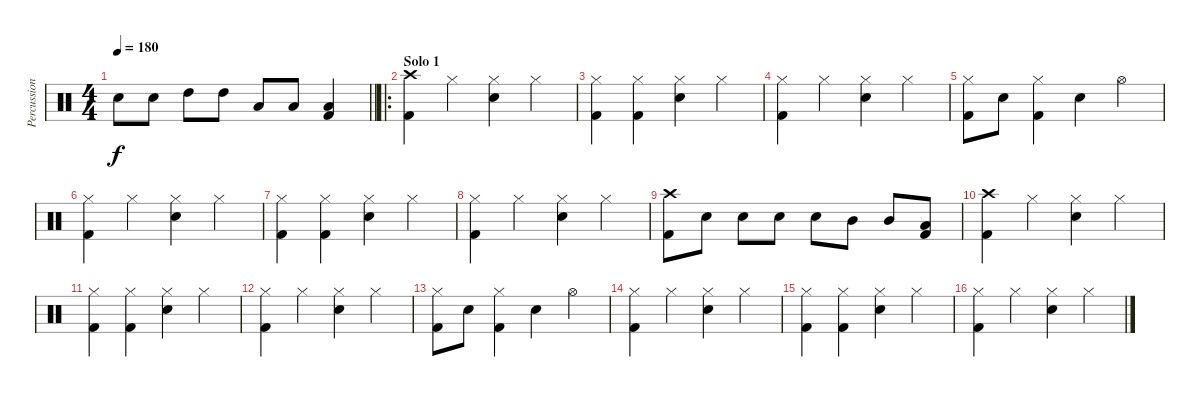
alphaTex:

\track ("Percussion" "Percussion") {instrument percussion}
\staff {score}
\articulation defaults
\ts (4 4)
\tempo 180
\clef neutral
\barLineRight lightlight
\ks c "Snare (hit) 2".8{dy f} "Snare (hit) 2".8 "High Tom (hit)".8 "High Tom (hit)".8 "Low Tom (hit)".8 "Low Tom (hit)".8
("Kick (hit) 2" "Low Floor Tom (hit)").4 |
\ro
\section ("" "Solo 1")
("Crash high (hit)" "Kick (hit) 2").4 "Hi-Hat (closed)".4 ("Hi-Hat (closed)" "Snare (hit) 2").4 "Hi-Hat (closed)".4 |
("Hi-Hat (closed)" "Kick (hit) 2").4 ("Hi-Hat (closed)" "Kick (hit) 2").4 ("Hi-Hat (closed)" "Snare (hit) 2").4 "Hi-Hat (closed)".4 |
("Hi-Hat (closed)" "Kick (hit) 2").4 "Hi-Hat (closed)".4 ("Hi-Hat (closed)" "Snare (hit) 2").4 "Hi-Hat (closed)".4 |
("Hi-Hat (closed)" "Kick (hit) 2").8 "Snare (hit) 2".8 ("Hi-Hat (closed)" "Kick (hit) 2").4 "Snare (hit) 2".4 "Hi-Hat (open)".4 |
("Hi-Hat (closed)" "Kick (hit) 2").4 "Hi-Hat (closed)".4 ("Hi-Hat (closed)" "Snare (hit) 2").4 "Hi-Hat (closed)".4 |
("Hi-Hat (closed)" "Kick (hit) 2").4 ("Hi-Hat (closed)" "Kick (hit) 2").4 ("Hi-Hat (closed)" "Snare (hit) 2").4 "Hi-Hat (closed)".4 |
("Hi-Hat (closed)" "Kick (hit) 2").4 "Hi-Hat (closed)".4 ("Hi-Hat (closed)" "Snare (hit) 2").4 "Hi-Hat (closed)".4 |
("Crash high (hit)" "Kick (hit) 2").8 "Snare (hit) 2".8 "Snare (hit) 2".8 "Snare (hit) 2".8 "Snare (hit) 2".8 "Mid Tom (hit)".8 "Mid Tom (hit)".8 ("Kick (hit) 2" "Low Tom (hit)").8 |
("Crash high (hit)" "Kick (hit) 2").4 "Hi-Hat (closed)".4 ("Hi-Hat (closed)" "Snare (hit) 2").4 "Hi-Hat (closed)".4 |
("Hi-Hat (closed)" "Kick (hit) 2").4 ("Hi-Hat (closed)" "Kick (hit) 2").4 ("Hi-Hat (closed)" "Snare (hit) 2").4 "Hi-Hat (closed)".4 |
("Hi-Hat (closed)" "Kick (hit) 2").4 "Hi-Hat (closed)".4 ("Hi-Hat (closed)" "Snare (hit) 2").4 "Hi-Hat (closed)".4 |
("Hi-Hat (closed)" "Kick (hit) 2").8 "Snare (hit) 2".8 ("Hi-Hat (closed)" "Kick (hit) 2").4 "Snare (hit) 2".4 "Hi-Hat (open)".4 |
("Hi-Hat (closed)" "Kick (hit) 2").4 "Hi-Hat (closed)".4 ("Hi-Hat (closed)" "Snare (hit) 2").4 "Hi-Hat (closed)".4 |
("Hi-Hat (closed)" "Kick (hit) 2").4 ("Hi-Hat (closed)" "Kick (hit) 2").4 ("Hi-Hat (closed)" "Snare (hit) 2").4 "Hi-Hat (closed)".4 |
("Hi-Hat (closed)" "Kick (hit) 2").4 "Hi-Hat (closed)".4 ("Hi-Hat (closed)" "Snare (hit) 2").4 "Hi-Hat (closed)".4
